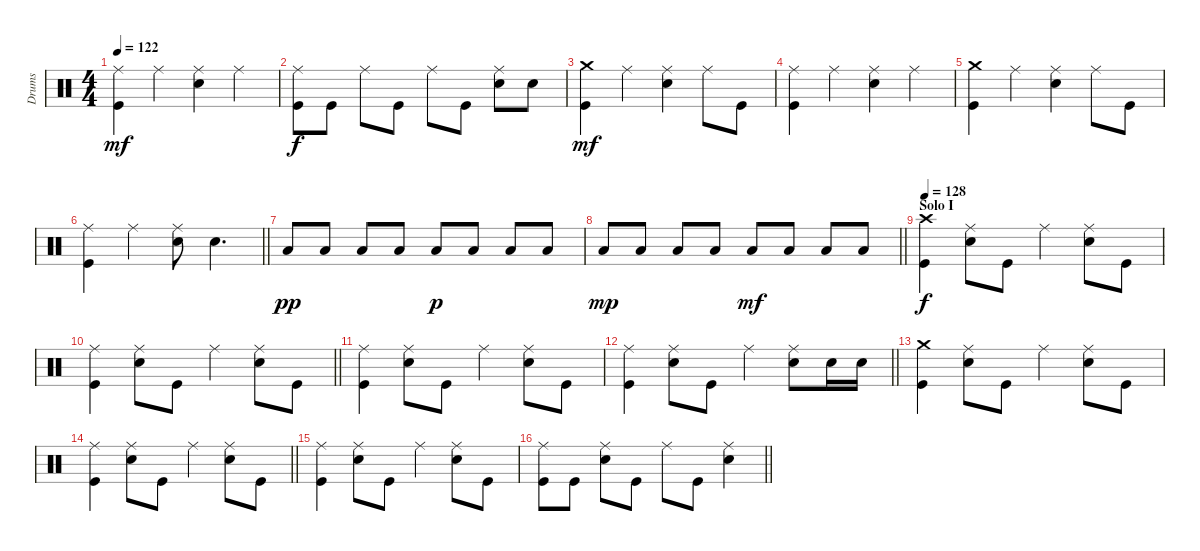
\track ("Drums" "Drums") {instrument percussion}
\staff {score}
\articulation defaults
\ts (4 4)
\tempo 122
\clef neutral
\ks c
("Kick (hit)" "Ride (middle)").4{dy mf} "Ride (middle)".4 ("Snare (hit) 2" "Ride (middle)").4 "Ride (middle)".4 |
("Kick (hit)" "Ride (middle)").8{dy f} "Kick (hit)".8 "Ride (middle)".8 "Kick (hit)".8 "Ride (middle)".8 "Kick (hit)".8 ("Snare (hit) 2" "Ride (middle)").8 "Snare (hit) 2".8 |
("Kick (hit)" "Crash medium (hit)").4{dy mf} "Ride (middle)".4 ("Snare (hit) 2" "Ride (middle)").4 "Ride (middle)".8 "Kick (hit)".8 |
("Kick (hit)" "Ride (middle)").4 "Ride (middle)".4 ("Snare (hit) 2" "Ride (middle)").4 "Ride (middle)".4 |
("Kick (hit)" "Crash medium (hit)").4 "Ride (middle)".4 ("Snare (hit) 2" "Ride (middle)").4 "Ride (middle)".8 "Kick (hit)".8 |
\barLineRight lightlight
("Kick (hit)" "Ride (middle)").4 "Ride (middle)".4 ("Snare (hit) 2" "Ride (middle)").8 "Snare (hit) 2".4{d} |
"Low Tom (hit)".8{dy pp} "Low Tom (hit)".8 "Low Tom (hit)".8 "Low Tom (hit)".8 "Low Tom (hit)".8{dy p} "Low Tom (hit)".8 "Low Tom (hit)".8 "Low Tom (hit)".8 |
\barLineRight lightlight "Low Tom (hit)".8{dy mp} "Low Tom (hit)".8 "Low Tom (hit)".8 "Low Tom (hit)".8 "Low Tom (hit)".8{dy mf} "Low Tom (hit)".8 "Low Tom (hit)".8 "Low Tom (hit)".8
|
\section ("" "Solo I")
\tempo 128
("Crash high (hit)" "Kick (hit)").4{dy f} ("Snare (hit) 2" "Ride (middle)").8 "Kick (hit)".8 "Ride (middle)".4 ("Snare (hit) 2" "Ride (middle)").8 "Kick (hit)".8 |
\barLineRight lightlight
("Ride (middle)" "Kick (hit)").4 ("Snare (hit) 2" "Ride (middle)").8 "Kick (hit)".8 "Ride (middle)".4 ("Snare (hit) 2" "Ride (middle)").8 "Kick (hit)".8 |
("Ride (middle)" "Kick (hit)").4 ("Snare (hit) 2" "Ride (middle)").8 "Kick (hit)".8 "Ride (middle)".4 ("Snare (hit) 2" "Ride (middle)").8 "Kick (hit)".8 |
\barLineRight lightlight
("Ride (middle)" "Kick (hit)").4 ("Snare (hit) 2" "Ride (middle)").8 "Kick (hit)".8 "Ride (middle)".4 ("Snare (hit) 2" "Ride (middle)").8 "Snare (hit) 2".16 "Snare (hit) 2".16 |
("Crash medium (hit)" "Kick (hit)").4 ("Snare (hit) 2" "Ride (middle)").8 "Kick (hit)".8 "Ride (middle)".4 ("Snare (hit) 2" "Ride (middle)").8 "Kick (hit)".8 |
\barLineRight lightlight
("Ride (middle)" "Kick (hit)").4 ("Snare (hit) 2" "Ride (middle)").8 "Kick (hit)".8 "Ride (middle)".4 ("Snare (hit) 2" "Ride (middle)").8 "Kick (hit)".8 |
("Ride (middle)" "Kick (hit)").4 ("Snare (hit) 2" "Ride (middle)").8 "Kick (hit)".8 "Ride (middle)".4 ("Snare (hit) 2" "Ride (middle)").8 "Kick (hit)".8 |
\barLineRight lightlight
("Kick (hit)" "Ride (middle)").8 "Kick (hit)".8 ("Ride (middle)" "Snare (hit) 2").8 "Kick (hit)".8 "Ride (middle)".8 "Kick (hit)".8 ("Snare (hit) 2" "Ride (middle)").4
